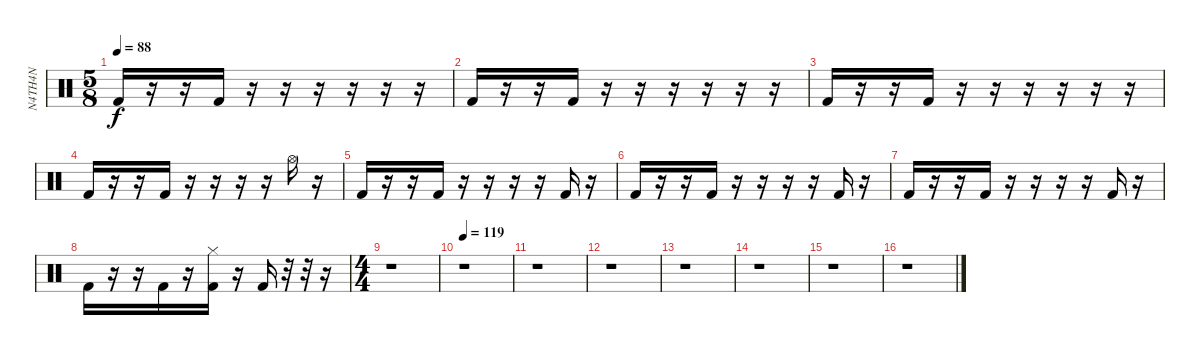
\track ("N4TH4N" "N4TH4N") {instrument percussion}
\staff {score}
\articulation defaults
\ts (5 8)
\tempo 88
\clef neutral
\ks c "Kick (hit) 2".16{dy f}
r.16 r.16 "Kick (hit) 2".16 r.16 r.16 r.16 r.16 r.16 r.16 |
"Kick (hit) 2".16 r.16 r.16 "Kick (hit) 2".16 r.16 r.16 r.16 r.16 r.16 r.16 |
"Kick (hit) 2".16 r.16 r.16 "Kick (hit) 2".16 r.16 r.16 r.16 r.16 r.16 r.16 |
"Kick (hit) 2".16 r.16 r.16 "Kick (hit) 2".16 r.16 r.16 r.16 r.16 "Hi-Hat (open)".16 r.16 |
"Kick (hit) 2".16 r.16 r.16 "Kick (hit) 2".16 r.16 r.16 r.16 r.16 "Kick (hit) 2".16 r.16 |
"Kick (hit) 2".16 r.16 r.16 "Kick (hit) 2".16 r.16 r.16 r.16 r.16 "Kick (hit) 2".16 r.16 |
"Kick (hit) 2".16 r.16 r.16 "Kick (hit) 2".16 r.16 r.16 r.16 r.16 "Kick (hit) 2".16 r.16 |
"Kick (hit) 2".16 r.16 r.16 "Kick (hit) 2".16 r.16 ("Kick (hit) 2" "Hi-Hat (closed)").16 r.16 "Kick (hit) 2".16 r.32 r.32 r.16 |
\ts (4 4)
r.1 |
\tempo 119
r.1 |
r.1 |
r.1 |
r.1 |
r.1 |
r.1 |
r.1
